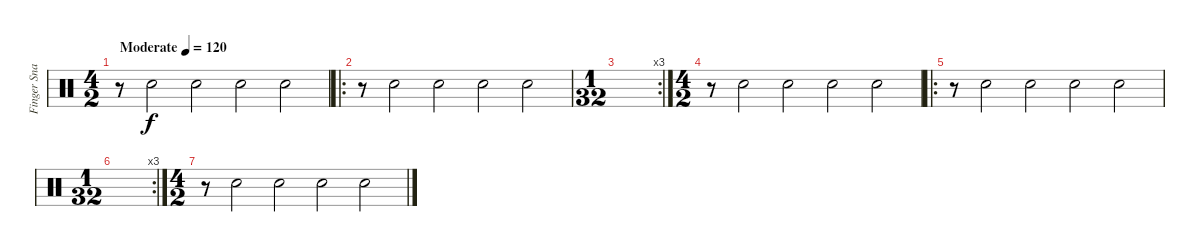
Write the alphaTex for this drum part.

\track ("Finger Snap" "Finger Sna") {instrument percussion}
\staff {score}
\articulation defaults
\ts (4 2)
\tempo (120 "Moderate")
\clef neutral
\ks c
r.8{dy f} "Hand Clap (hit)".2 "Hand Clap (hit)".2 "Hand Clap (hit)".2 "Hand Clap (hit)".2 |
\ro
r.8 "Hand Clap (hit)".2 "Hand Clap (hit)".2 "Hand Clap (hit)".2 "Hand Clap (hit)".2 |
\rc 3
\ts (1 32)
|
\ts (4 2)
r.8 "Hand Clap (hit)".2 "Hand Clap (hit)".2 "Hand Clap (hit)".2 "Hand Clap (hit)".2 |
\ro
r.8 "Hand Clap (hit)".2 "Hand Clap (hit)".2 "Hand Clap (hit)".2 "Hand Clap (hit)".2 |
\rc 3
\ts (1 32)
|
\ts (4 2)
r.8 "Hand Clap (hit)".2 "Hand Clap (hit)".2 "Hand Clap (hit)".2 "Hand Clap (hit)".2
